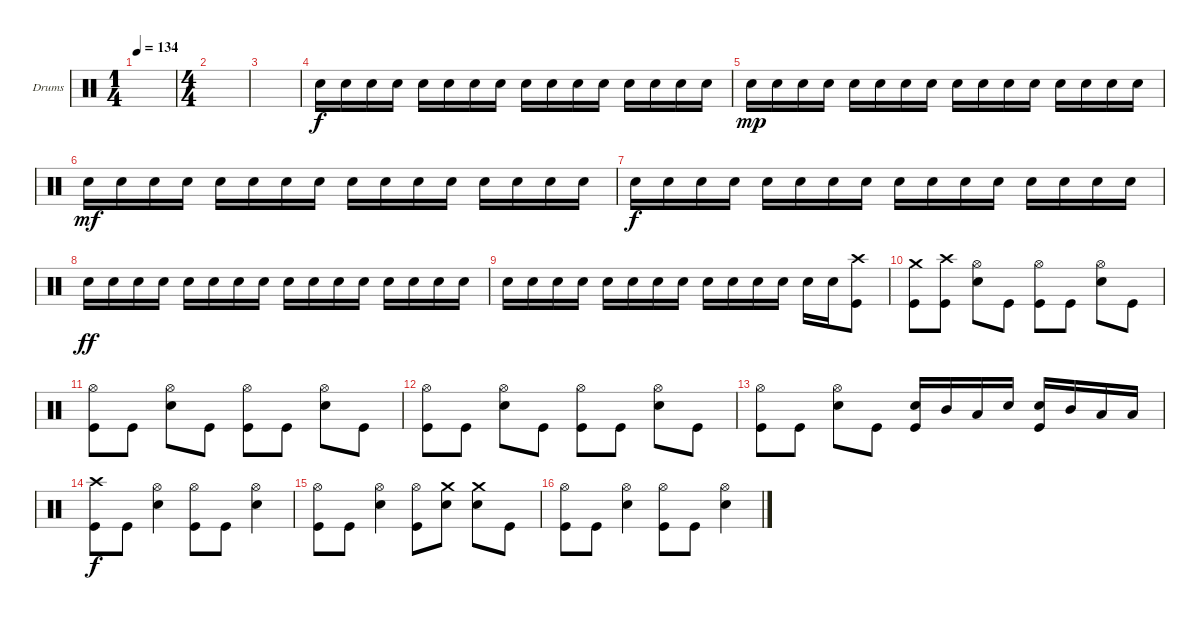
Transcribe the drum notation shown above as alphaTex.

\defaultSystemsLayout 4
\bracketExtendMode groupsimilarinstruments
\firstSystemTrackNameOrientation horizontal
\otherSystemsTrackNameOrientation horizontal
\track ("Drumkit" "Drums") {instrument percussion}
\staff {score}
\articulation defaults
\ts (1 4)
\tempo 134
\clef neutral
\scale
0.390805
\ks c
|
\ts (4 4)
\scale
0.390805 |
\scale
0.218391 |
\scale
0.333333 "Snare (hit) 2".16 "Snare (hit) 2".16 "Snare (hit) 2".16 "Snare (hit) 2".16 "Snare (hit) 2".16 "Snare (hit) 2".16 "Snare (hit) 2".16 "Snare (hit) 2".16 "Snare (hit) 2".16 "Snare (hit) 2".16 "Snare (hit) 2".16 "Snare (hit) 2".16 "Snare (hit) 2".16 "Snare (hit) 2".16 "Snare (hit) 2".16 "Snare (hit) 2".16 |
\scale
0.333333 "Snare (hit) 2".16{dy mp} "Snare (hit) 2".16 "Snare (hit) 2".16 "Snare (hit) 2".16 "Snare (hit) 2".16 "Snare (hit) 2".16 "Snare (hit) 2".16 "Snare (hit) 2".16 "Snare (hit) 2".16 "Snare (hit) 2".16 "Snare (hit) 2".16 "Snare (hit) 2".16 "Snare (hit) 2".16 "Snare (hit) 2".16 "Snare (hit) 2".16 "Snare (hit) 2".16 |
\scale
0.333333 "Snare (hit) 2".16{dy mf} "Snare (hit) 2".16 "Snare (hit) 2".16 "Snare (hit) 2".16 "Snare (hit) 2".16 "Snare (hit) 2".16 "Snare (hit) 2".16 "Snare (hit) 2".16 "Snare (hit) 2".16 "Snare (hit) 2".16 "Snare (hit) 2".16 "Snare (hit) 2".16 "Snare (hit) 2".16 "Snare (hit) 2".16 "Snare (hit) 2".16 "Snare (hit) 2".16 |
\scale
0.333333 "Snare (hit) 2".16{dy f} "Snare (hit) 2".16 "Snare (hit) 2".16 "Snare (hit) 2".16 "Snare (hit) 2".16 "Snare (hit) 2".16 "Snare (hit) 2".16 "Snare (hit) 2".16 "Snare (hit) 2".16 "Snare (hit) 2".16 "Snare (hit) 2".16 "Snare (hit) 2".16 "Snare (hit) 2".16 "Snare (hit) 2".16 "Snare (hit) 2".16 "Snare (hit) 2".16 |
\scale
0.333333 "Snare (hit) 2".16{dy ff} "Snare (hit) 2".16 "Snare (hit) 2".16 "Snare (hit) 2".16 "Snare (hit) 2".16 "Snare (hit) 2".16 "Snare (hit) 2".16 "Snare (hit) 2".16 "Snare (hit) 2".16 "Snare (hit) 2".16 "Snare (hit) 2".16 "Snare (hit) 2".16 "Snare (hit) 2".16 "Snare (hit) 2".16 "Snare (hit) 2".16 "Snare (hit) 2".16 |
\scale
0.333333 "Snare (hit) 2".16 "Snare (hit) 2".16 "Snare (hit) 2".16 "Snare (hit) 2".16 "Snare (hit) 2".16 "Snare (hit) 2".16 "Snare (hit) 2".16 "Snare (hit) 2".16 "Snare (hit) 2".16 "Snare (hit) 2".16 "Snare (hit) 2".16 "Snare (hit) 2".16 "Snare (hit) 2".16 "Snare (hit) 2".16 ("Crash high (hit)" "Kick (hit)").8 |
\scale
0.333333 ("Crash medium (hit)" "Kick (hit)").8 ("Crash high (hit)" "Kick (hit)").8 ("Hi-Hat (open)" "Snare (hit) 2").8 "Kick (hit)".8 ("Hi-Hat (open)" "Kick (hit)").8 "Kick (hit)".8 ("Hi-Hat (open)" "Snare (hit) 2").8 "Kick (hit)".8 |
\scale
0.333333 ("Hi-Hat (open)" "Kick (hit)").8 "Kick (hit)".8 ("Hi-Hat (open)" "Snare (hit) 2").8 "Kick (hit)".8 ("Hi-Hat (open)" "Kick (hit)").8 "Kick (hit)".8 ("Hi-Hat (open)" "Snare (hit) 2").8 "Kick (hit)".8 |
\scale
0.333333 ("Hi-Hat (open)" "Kick (hit)").8 "Kick (hit)".8 ("Hi-Hat (open)" "Snare (hit) 2").8 "Kick (hit)".8 ("Hi-Hat (open)" "Kick (hit)").8 "Kick (hit)".8 ("Hi-Hat (open)" "Snare (hit) 2").8 "Kick (hit)".8 |
\scale
0.333333 ("Hi-Hat (open)" "Kick (hit)").8 "Kick (hit)".8 ("Hi-Hat (open)" "Snare (hit) 2").8 "Kick (hit)".8 ("Snare (hit) 2" "Kick (hit)").16 "Mid Tom (hit)".16 "Low Tom (hit)".16 "Snare (hit) 2".16 ("Snare (hit) 2" "Kick (hit)").16 "Mid Tom (hit)".16 "Low Tom (hit)".16 "Low Tom (hit)".16 |
\scale
0.333333 ("Crash high (hit)" "Kick (hit)").8{dy f} "Kick (hit)".8 ("Hi-Hat (open)" "Snare (hit) 2").4 ("Hi-Hat (open)" "Kick (hit)").8 "Kick (hit)".8 ("Hi-Hat (open)" "Snare (hit) 2").4 |
\scale
0.333333 ("Hi-Hat (open)" "Kick (hit)").8 "Kick (hit)".8 ("Hi-Hat (open)" "Snare (hit) 2").4 ("Hi-Hat (open)" "Kick (hit)").8 ("Crash medium (hit)" "Snare (hit) 2").8 ("Crash medium (hit)" "Snare (hit) 2").8 "Kick (hit)".8 |
\scale
0.333333 ("Hi-Hat (open)" "Kick (hit)").8 "Kick (hit)".8 ("Hi-Hat (open)" "Snare (hit) 2").4 ("Hi-Hat (open)" "Kick (hit)").8 "Kick (hit)".8 ("Hi-Hat (open)" "Snare (hit) 2").4
